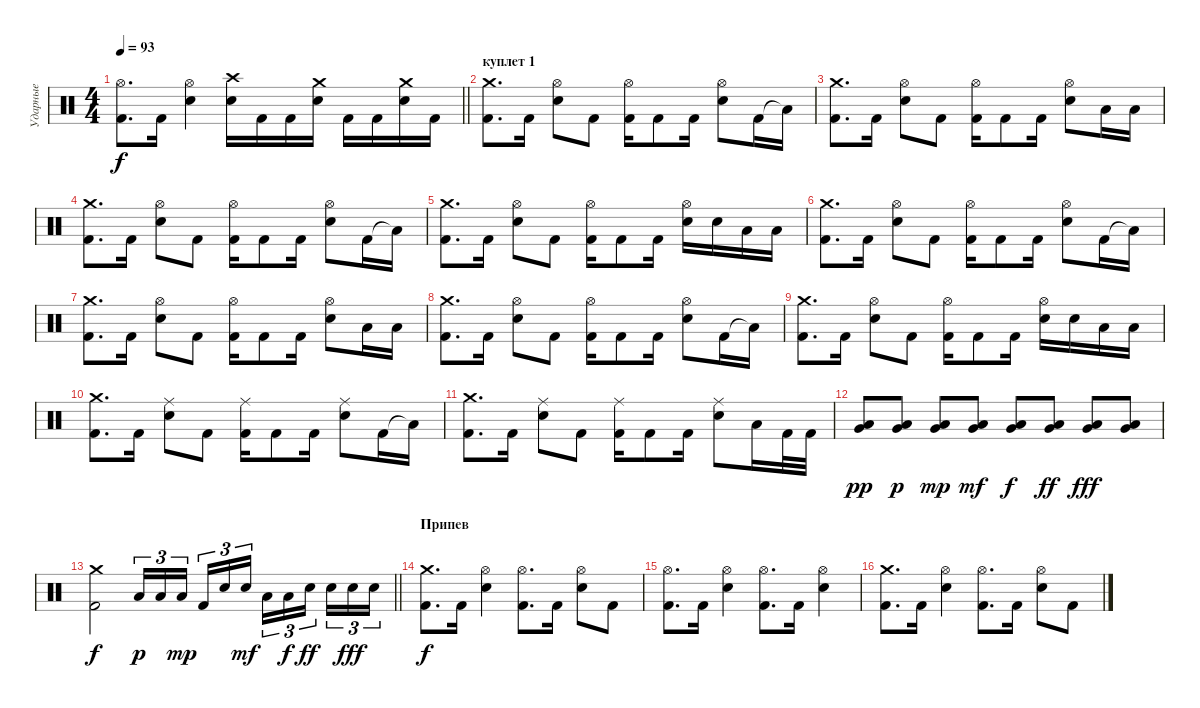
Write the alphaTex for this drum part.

\track ("Ударные" "Ударные") {instrument percussion}
\staff {score}
\articulation defaults
\ts (4 4)
\tempo 93
\clef neutral
\barLineRight lightlight
\ks c
("Kick (hit) 2" "Hi-Hat (open)").8{d dy f} "Kick (hit) 2".16 ("Hi-Hat (open)" "Snare (hit) 2").4 ("Snare (hit) 2" "Crash high (hit)").16 "Kick (hit) 2".16 "Kick (hit) 2".16 ("Snare (hit) 2" "Crash medium (hit)").16 "Kick (hit) 2".16 "Kick (hit) 2".16 ("Snare (hit) 2" "Crash medium (hit)").16 "Kick (hit) 2".16 |
\section ("" "куплет 1")
("Crash medium (hit)" "Kick (hit) 2").8{d} "Kick (hit) 2".16 ("Hi-Hat (open)" "Snare (hit) 2").8 "Kick (hit) 2".8 ("Hi-Hat (open)" "Kick (hit) 2").16 "Kick (hit) 2".8 "Kick (hit) 2".16 ("Hi-Hat (open)" "Snare (hit) 2").8 "Kick (hit) 2".16 "Low Tom (hit)"{t}.16 |
("Crash medium (hit)" "Kick (hit) 2").8{d} "Kick (hit) 2".16 ("Hi-Hat (open)" "Snare (hit) 2").8 "Kick (hit) 2".8 ("Hi-Hat (open)" "Kick (hit) 2").16 "Kick (hit) 2".8 "Kick (hit) 2".16 ("Hi-Hat (open)" "Snare (hit) 2").8 "Low Tom (hit)".16 "Low Tom (hit)".16 |
("Crash medium (hit)" "Kick (hit) 2").8{d} "Kick (hit) 2".16 ("Hi-Hat (open)" "Snare (hit) 2").8 "Kick (hit) 2".8 ("Hi-Hat (open)" "Kick (hit) 2").16 "Kick (hit) 2".8 "Kick (hit) 2".16 ("Hi-Hat (open)" "Snare (hit) 2").8 "Kick (hit) 2".16 "Low Tom (hit)"{t}.16 |
("Crash medium (hit)" "Kick (hit) 2").8{d} "Kick (hit) 2".16 ("Hi-Hat (open)" "Snare (hit) 2").8 "Kick (hit) 2".8 ("Hi-Hat (open)" "Kick (hit) 2").16 "Kick (hit) 2".8 "Kick (hit) 2".16 ("Hi-Hat (open)" "Snare (hit) 2").16 "Snare (hit) 2".16 "Low Tom (hit)".16 "Low Tom (hit)".16 |
("Crash medium (hit)" "Kick (hit) 2").8{d} "Kick (hit) 2".16 ("Hi-Hat (open)" "Snare (hit) 2").8 "Kick (hit) 2".8 ("Hi-Hat (open)" "Kick (hit) 2").16 "Kick (hit) 2".8 "Kick (hit) 2".16 ("Hi-Hat (open)" "Snare (hit) 2").8 "Kick (hit) 2".16 "Low Tom (hit)"{t}.16 |
("Crash medium (hit)" "Kick (hit) 2").8{d} "Kick (hit) 2".16 ("Hi-Hat (open)" "Snare (hit) 2").8 "Kick (hit) 2".8 ("Hi-Hat (open)" "Kick (hit) 2").16 "Kick (hit) 2".8 "Kick (hit) 2".16 ("Hi-Hat (open)" "Snare (hit) 2").8 "Low Tom (hit)".16 "Low Tom (hit)".16 |
("Crash medium (hit)" "Kick (hit) 2").8{d} "Kick (hit) 2".16 ("Hi-Hat (open)" "Snare (hit) 2").8 "Kick (hit) 2".8 ("Hi-Hat (open)" "Kick (hit) 2").16 "Kick (hit) 2".8 "Kick (hit) 2".16 ("Hi-Hat (open)" "Snare (hit) 2").8 "Kick (hit) 2".16 "Low Tom (hit)"{t}.16 |
("Crash medium (hit)" "Kick (hit) 2").8{d} "Kick (hit) 2".16 ("Hi-Hat (open)" "Snare (hit) 2").8 "Kick (hit) 2".8 ("Hi-Hat (open)" "Kick (hit) 2").16 "Kick (hit) 2".8 "Kick (hit) 2".16 ("Hi-Hat (open)" "Snare (hit) 2").16 "Snare (hit) 2".16 "Low Tom (hit)".16 "Low Tom (hit)".16 |
("Crash medium (hit)" "Kick (hit) 2").8{d} "Kick (hit) 2".16 ("Ride (middle)" "Snare (hit) 2").8 "Kick (hit) 2".8 ("Ride (middle)" "Kick (hit) 2").16 "Kick (hit) 2".8 "Kick (hit) 2".16 ("Ride (middle)" "Snare (hit) 2").8 "Kick (hit) 2".16 "Low Tom (hit)"{t}.16 |
("Crash medium (hit)" "Kick (hit) 2").8{d} "Kick (hit) 2".16 ("Ride (middle)" "Snare (hit) 2").8 "Kick (hit) 2".8 ("Ride (middle)" "Kick (hit) 2").16 "Kick (hit) 2".8 "Kick (hit) 2".16 ("Ride (middle)" "Snare (hit) 2").8 "Low Tom (hit)".16 "Kick (hit) 2".32 "Kick (hit) 2".32 |
("Low Tom (hit)" "Very Low Tom (hit)").8{dy pp} ("Low Tom (hit)" "Very Low Tom (hit)").8{dy p} ("Low Tom (hit)" "Very Low Tom (hit)").8{dy mp} ("Low Tom (hit)" "Very Low Tom (hit)").8{dy mf} ("Low Tom (hit)" "Very Low Tom (hit)").8{dy f} ("Low Tom (hit)" "Very Low Tom (hit)").8{dy ff} ("Low Tom (hit)" "Very Low Tom (hit)").8{dy fff} ("Low Tom (hit)" "Very Low Tom (hit)").8 |
\barLineRight lightlight
("Crash medium (hit)" "Kick (hit) 2").2{dy f} "Low Tom (hit)".16{tu (3 2) dy p} "Low Tom (hit)".16{tu (3 2)} "Low Tom (hit)".16{tu (3 2) dy mp beam splitsecondary} "Kick (hit) 2".16{tu (3 2)} "Snare (hit) 2".16{tu (3 2)} "Snare (hit) 2".16{tu (3 2) dy mf} "Low Tom (hit)".16{tu (3 2)} "Low Tom (hit)".16{tu (3 2) dy f} "Snare (hit) 2".16{tu (3 2) dy ff beam splitsecondary} "Snare (hit) 2".16{tu (3 2)} "Snare (hit) 2".16{tu (3 2) dy fff} "Snare (hit) 2".16{tu (3 2)} |
\section ("" "Припев")
("Kick (hit) 2" "Crash medium (hit)").8{d dy f} "Kick (hit) 2".16 ("Hi-Hat (open)" "Snare (hit) 2").4 ("Hi-Hat (open)" "Kick (hit) 2").8{d} "Kick (hit) 2".16 ("Hi-Hat (open)" "Snare (hit) 2").8 "Kick (hit) 2".8 |
("Kick (hit) 2" "Hi-Hat (open)").8{d} "Kick (hit) 2".16 ("Hi-Hat (open)" "Snare (hit) 2").4 ("Hi-Hat (open)" "Kick (hit) 2").8{d} "Kick (hit) 2".16 ("Hi-Hat (open)" "Snare (hit) 2").4 |
("Kick (hit) 2" "Crash medium (hit)").8{d} "Kick (hit) 2".16 ("Hi-Hat (open)" "Snare (hit) 2").4 ("Hi-Hat (open)" "Kick (hit) 2").8{d} "Kick (hit) 2".16 ("Hi-Hat (open)" "Snare (hit) 2").8 "Kick (hit) 2".8
